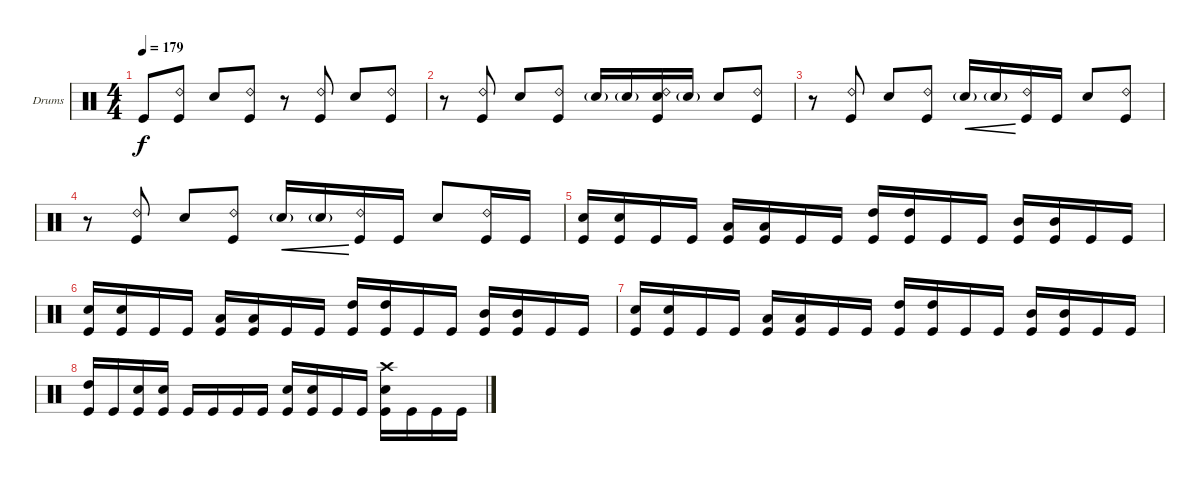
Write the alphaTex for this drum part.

\bracketExtendMode groupsimilarinstruments
\firstSystemTrackNameOrientation horizontal
\otherSystemsTrackNameOrientation horizontal
\track ("Drumkit" "Drums") {multiBarRest instrument percussion}
\staff {score}
\articulation defaults
\ts (4 4)
\tempo 179
\clef neutral
\ks c "Kick (hit)".8{dy f}
("Ride (bell) 2" "Kick (hit)").8 "Snare (hit) 2".8 ("Ride (bell) 2" "Kick (hit)").8 r.8 ("Ride (bell) 2" "Kick (hit)").8 "Snare (hit) 2".8 ("Ride (bell) 2" "Kick (hit)").8 |
r.8 ("Ride (bell) 2" "Kick (hit)").8 "Snare (hit) 2".8 ("Ride (bell) 2" "Kick (hit)").8 "Snare (hit) 2"{g}.16 "Snare (hit) 2"{g}.16 ("Ride (bell) 2" "Snare (hit) 2" "Kick (hit)").16 "Snare (hit) 2"{g}.16 "Snare (hit) 2".8 ("Ride (bell) 2" "Kick (hit)").8 |
r.8 ("Ride (bell) 2" "Kick (hit)").8 "Snare (hit) 2".8 ("Ride (bell) 2" "Kick (hit)").8 "Snare (hit) 2"{g}.16{cre} "Snare (hit) 2"{g}.16{cre} ("Ride (bell) 2" "Kick (hit)").16 "Kick (hit)".16 "Snare (hit) 2".8 ("Ride (bell) 2" "Kick (hit)").8 |
r.8 ("Ride (bell) 2" "Kick (hit)").8 "Snare (hit) 2".8 ("Ride (bell) 2" "Kick (hit)").8 "Snare (hit) 2"{g}.16{cre} "Snare (hit) 2"{g}.16{cre} ("Ride (bell) 2" "Kick (hit)").16 "Kick (hit)".16 "Snare (hit) 2".8 ("Ride (bell) 2" "Kick (hit)").16 "Kick (hit)".16 |
("Snare (hit) 2" "Kick (hit)").16 ("Snare (hit) 2" "Kick (hit)").16 "Kick (hit)".16 "Kick (hit)".16 ("Low Tom (hit)" "Kick (hit)").16 ("Low Tom (hit)" "Kick (hit)").16 "Kick (hit)".16 "Kick (hit)".16 ("High Tom (hit)" "Kick (hit)").16 ("High Tom (hit)" "Kick (hit)").16 "Kick (hit)".16 "Kick (hit)".16 ("Mid Tom (hit)" "Kick (hit)").16 ("Mid Tom (hit)" "Kick (hit)").16 "Kick (hit)".16 "Kick (hit)".16 |
("Snare (hit) 2" "Kick (hit)").16 ("Snare (hit) 2" "Kick (hit)").16 "Kick (hit)".16 "Kick (hit)".16 ("Low Tom (hit)" "Kick (hit)").16 ("Low Tom (hit)" "Kick (hit)").16 "Kick (hit)".16 "Kick (hit)".16 ("High Tom (hit)" "Kick (hit)").16 ("High Tom (hit)" "Kick (hit)").16 "Kick (hit)".16 "Kick (hit)".16 ("Mid Tom (hit)" "Kick (hit)").16 ("Mid Tom (hit)" "Kick (hit)").16 "Kick (hit)".16 "Kick (hit)".16 |
("Snare (hit) 2" "Kick (hit)").16 ("Snare (hit) 2" "Kick (hit)").16 "Kick (hit)".16 "Kick (hit)".16 ("Low Tom (hit)" "Kick (hit)").16 ("Low Tom (hit)" "Kick (hit)").16 "Kick (hit)".16 "Kick (hit)".16 ("High Tom (hit)" "Kick (hit)").16 ("High Tom (hit)" "Kick (hit)").16 "Kick (hit)".16 "Kick (hit)".16 ("Mid Tom (hit)" "Kick (hit)").16 ("Mid Tom (hit)" "Kick (hit)").16 "Kick (hit)".16 "Kick (hit)".16 |
("High Tom (hit)" "Kick (hit)").16 "Kick (hit)".16 ("Snare (hit) 2" "Kick (hit)").16 ("Snare (hit) 2" "Kick (hit)").16 "Kick (hit)".16 "Kick (hit)".16 "Kick (hit)".16 "Kick (hit)".16 ("Snare (hit) 2" "Kick (hit)").16 ("Snare (hit) 2" "Kick (hit)").16 "Kick (hit)".16 "Kick (hit)".16 ("Crash high (hit)" "Snare (hit) 2" "Kick (hit)").16 "Kick (hit)".16 "Kick (hit)".16 "Kick (hit)".16
